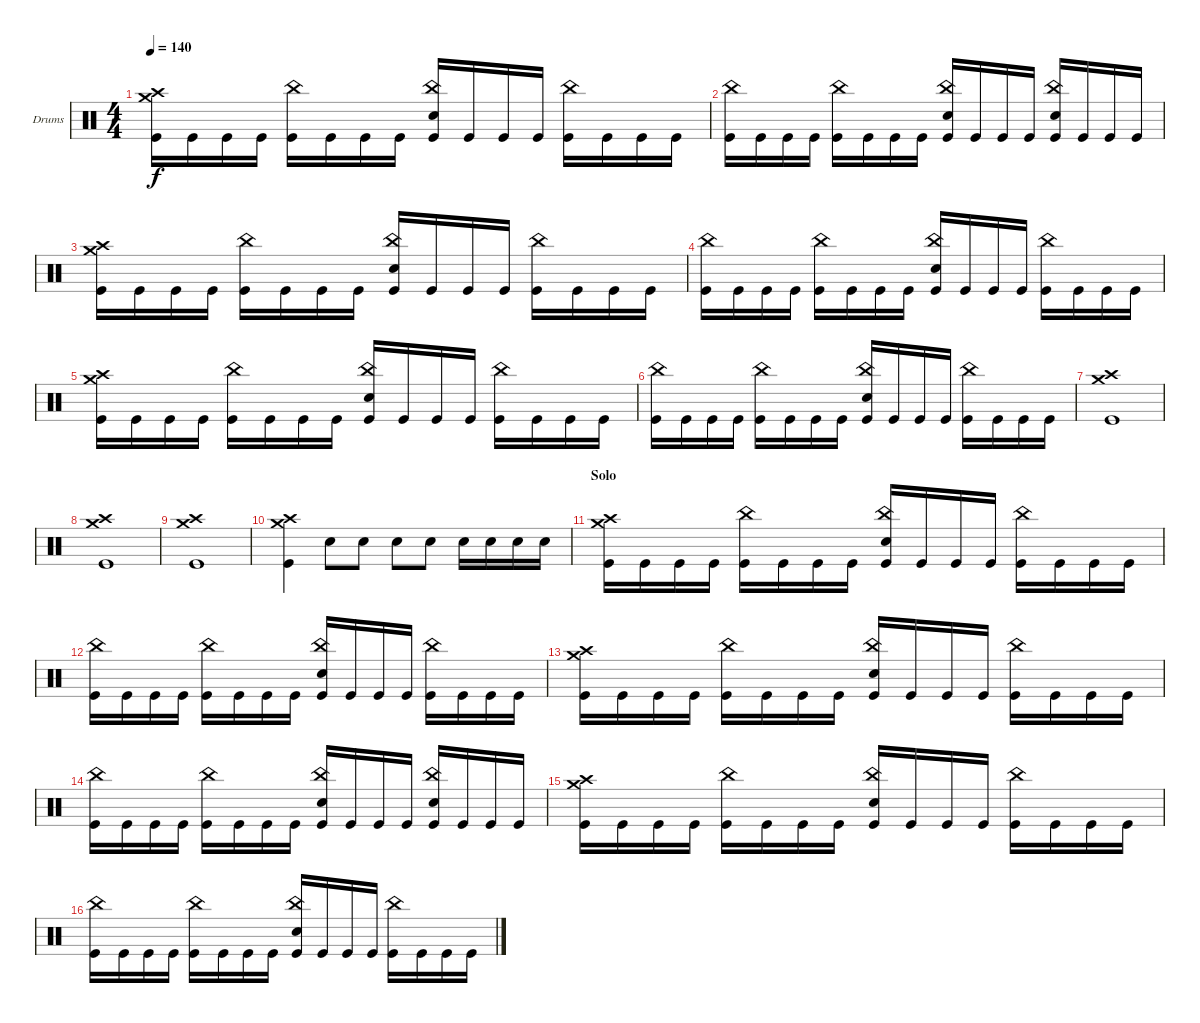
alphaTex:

\defaultSystemsLayout 4
\bracketExtendMode groupsimilarinstruments
\firstSystemTrackNameOrientation horizontal
\otherSystemsTrackNameOrientation horizontal
\track ("Drumkit" "Drums") {instrument percussion}
\staff {score}
\articulation defaults
\ts (4 4)
\tempo 140
\clef neutral
\ks c
("Kick (hit)" "Crash high (hit)" "Crash medium (hit)").16{dy f} "Kick (hit)".16 "Kick (hit)".16 "Kick (hit)".16 ("Kick (hit)" "China (hit)").16 "Kick (hit)".16 "Kick (hit)".16 "Kick (hit)".16 ("Kick (hit)" "Snare (hit) 2" "China (hit)").16 "Kick (hit)".16 "Kick (hit)".16 "Kick (hit)".16 ("Kick (hit)" "China (hit)").16 "Kick (hit)".16 "Kick (hit)".16 "Kick (hit)".16 |
("Kick (hit)" "China (hit)").16 "Kick (hit)".16 "Kick (hit)".16 "Kick (hit)".16 ("Kick (hit)" "China (hit)").16 "Kick (hit)".16 "Kick (hit)".16 "Kick (hit)".16 ("Kick (hit)" "Snare (hit) 2" "China (hit)").16 "Kick (hit)".16 "Kick (hit)".16 "Kick (hit)".16 ("Kick (hit)" "China (hit)" "Snare (hit) 2").16 "Kick (hit)".16 "Kick (hit)".16 "Kick (hit)".16 |
("Kick (hit)" "Crash high (hit)" "Crash medium (hit)").16 "Kick (hit)".16 "Kick (hit)".16 "Kick (hit)".16 ("Kick (hit)" "China (hit)").16 "Kick (hit)".16 "Kick (hit)".16 "Kick (hit)".16 ("Kick (hit)" "Snare (hit) 2" "China (hit)").16 "Kick (hit)".16 "Kick (hit)".16 "Kick (hit)".16 ("Kick (hit)" "China (hit)").16 "Kick (hit)".16 "Kick (hit)".16 "Kick (hit)".16 |
("Kick (hit)" "China (hit)").16 "Kick (hit)".16 "Kick (hit)".16 "Kick (hit)".16 ("Kick (hit)" "China (hit)").16 "Kick (hit)".16 "Kick (hit)".16 "Kick (hit)".16 ("Kick (hit)" "Snare (hit) 2" "China (hit)").16 "Kick (hit)".16 "Kick (hit)".16 "Kick (hit)".16 ("Kick (hit)" "China (hit)").16 "Kick (hit)".16 "Kick (hit)".16 "Kick (hit)".16 |
("Kick (hit)" "Crash high (hit)" "Crash medium (hit)").16 "Kick (hit)".16 "Kick (hit)".16 "Kick (hit)".16 ("Kick (hit)" "China (hit)").16 "Kick (hit)".16 "Kick (hit)".16 "Kick (hit)".16 ("Kick (hit)" "Snare (hit) 2" "China (hit)").16 "Kick (hit)".16 "Kick (hit)".16 "Kick (hit)".16 ("Kick (hit)" "China (hit)").16 "Kick (hit)".16 "Kick (hit)".16 "Kick (hit)".16 |
("Kick (hit)" "China (hit)").16 "Kick (hit)".16 "Kick (hit)".16 "Kick (hit)".16 ("Kick (hit)" "China (hit)").16 "Kick (hit)".16 "Kick (hit)".16 "Kick (hit)".16 ("Kick (hit)" "Snare (hit) 2" "China (hit)").16 "Kick (hit)".16 "Kick (hit)".16 "Kick (hit)".16 ("Kick (hit)" "China (hit)").16 "Kick (hit)".16 "Kick (hit)".16 "Kick (hit)".16 |
("Kick (hit)" "Crash medium (hit)" "Crash high (hit)").1 |
("Kick (hit)" "Crash medium (hit)" "Crash high (hit)").1 |
("Kick (hit)" "Crash medium (hit)" "Crash high (hit)").1 |
("Kick (hit)" "Crash medium (hit)" "Crash high (hit)").4 "Snare (hit) 2".8 "Snare (hit) 2".8 "Snare (hit) 2".8 "Snare (hit) 2".8 "Snare (hit) 2".16 "Snare (hit) 2".16 "Snare (hit) 2".16 "Snare (hit) 2".16 |
\section ("" "Solo")
("Kick (hit)" "Crash high (hit)" "Crash medium (hit)").16 "Kick (hit)".16 "Kick (hit)".16 "Kick (hit)".16 ("Kick (hit)" "China (hit)").16 "Kick (hit)".16 "Kick (hit)".16 "Kick (hit)".16 ("Kick (hit)" "Snare (hit) 2" "China (hit)").16 "Kick (hit)".16 "Kick (hit)".16 "Kick (hit)".16 ("Kick (hit)" "China (hit)").16 "Kick (hit)".16 "Kick (hit)".16 "Kick (hit)".16 |
("Kick (hit)" "China (hit)").16 "Kick (hit)".16 "Kick (hit)".16 "Kick (hit)".16 ("Kick (hit)" "China (hit)").16 "Kick (hit)".16 "Kick (hit)".16 "Kick (hit)".16 ("Kick (hit)" "Snare (hit) 2" "China (hit)").16 "Kick (hit)".16 "Kick (hit)".16 "Kick (hit)".16 ("Kick (hit)" "China (hit)").16 "Kick (hit)".16 "Kick (hit)".16 "Kick (hit)".16 |
("Kick (hit)" "Crash high (hit)" "Crash medium (hit)").16 "Kick (hit)".16 "Kick (hit)".16 "Kick (hit)".16 ("Kick (hit)" "China (hit)").16 "Kick (hit)".16 "Kick (hit)".16 "Kick (hit)".16 ("Kick (hit)" "Snare (hit) 2" "China (hit)").16 "Kick (hit)".16 "Kick (hit)".16 "Kick (hit)".16 ("Kick (hit)" "China (hit)").16 "Kick (hit)".16 "Kick (hit)".16 "Kick (hit)".16 |
("Kick (hit)" "China (hit)").16 "Kick (hit)".16 "Kick (hit)".16 "Kick (hit)".16 ("Kick (hit)" "China (hit)").16 "Kick (hit)".16 "Kick (hit)".16 "Kick (hit)".16 ("Kick (hit)" "Snare (hit) 2" "China (hit)").16 "Kick (hit)".16 "Kick (hit)".16 "Kick (hit)".16 ("Kick (hit)" "China (hit)" "Snare (hit) 2").16 "Kick (hit)".16 "Kick (hit)".16 "Kick (hit)".16 |
("Kick (hit)" "Crash high (hit)" "Crash medium (hit)").16 "Kick (hit)".16 "Kick (hit)".16 "Kick (hit)".16 ("Kick (hit)" "China (hit)").16 "Kick (hit)".16 "Kick (hit)".16 "Kick (hit)".16 ("Kick (hit)" "Snare (hit) 2" "China (hit)").16 "Kick (hit)".16 "Kick (hit)".16 "Kick (hit)".16 ("Kick (hit)" "China (hit)").16 "Kick (hit)".16 "Kick (hit)".16 "Kick (hit)".16 |
("Kick (hit)" "China (hit)").16 "Kick (hit)".16 "Kick (hit)".16 "Kick (hit)".16 ("Kick (hit)" "China (hit)").16 "Kick (hit)".16 "Kick (hit)".16 "Kick (hit)".16 ("Kick (hit)" "Snare (hit) 2" "China (hit)").16 "Kick (hit)".16 "Kick (hit)".16 "Kick (hit)".16 ("Kick (hit)" "China (hit)").16 "Kick (hit)".16 "Kick (hit)".16 "Kick (hit)".16
